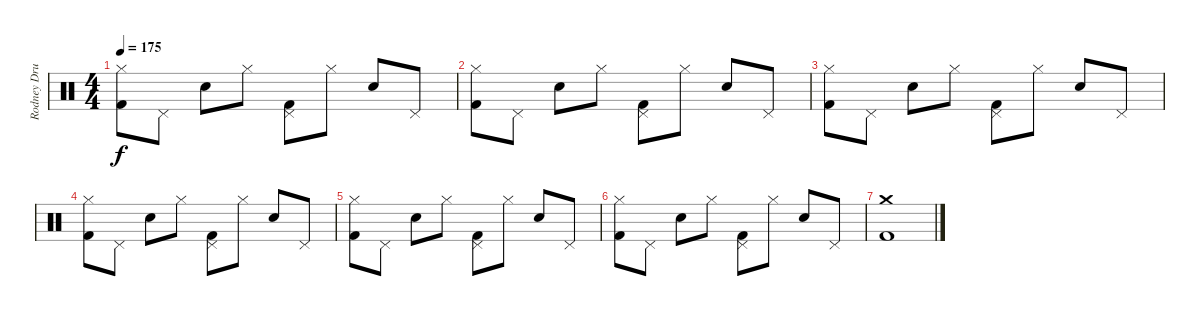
\track ("Rodney Drums" "Rodney Dru") {instrument percussion}
\staff {score}
\articulation defaults
\ts (4 4)
\tempo 175
\clef neutral
\ks c
("Hi-Hat (closed)" "Kick (hit) 2").8{dy f} "Pedal Hi-Hat (hit)".8 "Snare (hit) 2".8 "Hi-Hat (closed)".8 ("Pedal Hi-Hat (hit)" "Kick (hit) 2").8 "Hi-Hat (closed)".8 "Snare (hit) 2".8 "Pedal Hi-Hat (hit)".8 |
("Hi-Hat (closed)" "Kick (hit) 2").8 "Pedal Hi-Hat (hit)".8 "Snare (hit) 2".8 "Hi-Hat (closed)".8 ("Pedal Hi-Hat (hit)" "Kick (hit) 2").8 "Hi-Hat (closed)".8 "Snare (hit) 2".8 "Pedal Hi-Hat (hit)".8 |
("Hi-Hat (closed)" "Kick (hit) 2").8 "Pedal Hi-Hat (hit)".8 "Snare (hit) 2".8 "Hi-Hat (closed)".8 ("Pedal Hi-Hat (hit)" "Kick (hit) 2").8 "Hi-Hat (closed)".8 "Snare (hit) 2".8 "Pedal Hi-Hat (hit)".8 |
("Hi-Hat (closed)" "Kick (hit) 2").8 "Pedal Hi-Hat (hit)".8 "Snare (hit) 2".8 "Hi-Hat (closed)".8 ("Pedal Hi-Hat (hit)" "Kick (hit) 2").8 "Hi-Hat (closed)".8 "Snare (hit) 2".8 "Pedal Hi-Hat (hit)".8 |
("Hi-Hat (closed)" "Kick (hit) 2").8 "Pedal Hi-Hat (hit)".8 "Snare (hit) 2".8 "Hi-Hat (closed)".8 ("Pedal Hi-Hat (hit)" "Kick (hit) 2").8 "Hi-Hat (closed)".8 "Snare (hit) 2".8 "Pedal Hi-Hat (hit)".8 |
("Hi-Hat (closed)" "Kick (hit) 2").8 "Pedal Hi-Hat (hit)".8 "Snare (hit) 2".8 "Hi-Hat (closed)".8 ("Pedal Hi-Hat (hit)" "Kick (hit) 2").8 "Hi-Hat (closed)".8 "Snare (hit) 2".8 "Pedal Hi-Hat (hit)".8 |
("Crash medium (hit)" "Kick (hit) 2").1
